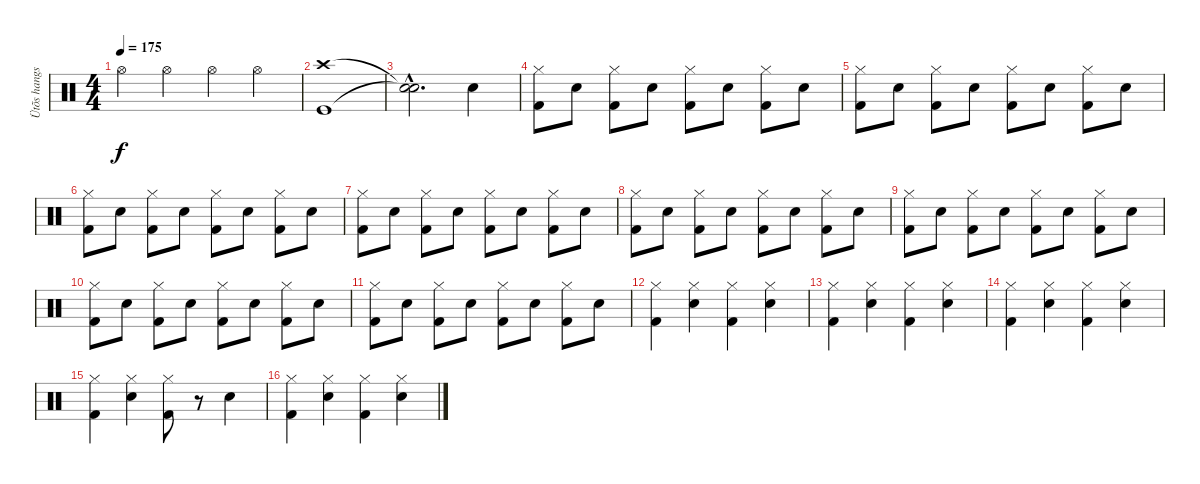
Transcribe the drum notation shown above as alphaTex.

\track ("Ütõs hangszer" "Ütõs hangs") {instrument percussion}
\staff {score}
\articulation defaults
\ts (4 4)
\tempo 175
\clef neutral
\ks c "Hi-Hat (open)".4{dy f} "Hi-Hat (open)".4 "Hi-Hat (open)".4 "Hi-Hat (open)".4
|
("Crash high (hit)" "Kick (hit)").1 |
("Snare (hit)"{hac t} "Snare (hit)"{hac t}).2{d} "Electric Snare (hit)".4 |
("Hi-Hat (closed)" "Kick (hit) 2").8 "Electric Snare (hit)".8 ("Hi-Hat (closed)" "Kick (hit) 2").8 "Electric Snare (hit)".8 ("Hi-Hat (closed)" "Kick (hit) 2").8 "Electric Snare (hit)".8 ("Hi-Hat (closed)" "Kick (hit) 2").8 "Electric Snare (hit)".8 |
("Hi-Hat (closed)" "Kick (hit) 2").8 "Electric Snare (hit)".8 ("Hi-Hat (closed)" "Kick (hit) 2").8 "Electric Snare (hit)".8 ("Hi-Hat (closed)" "Kick (hit) 2").8 "Electric Snare (hit)".8 ("Hi-Hat (closed)" "Kick (hit) 2").8 "Electric Snare (hit)".8 |
("Hi-Hat (closed)" "Kick (hit) 2").8 "Electric Snare (hit)".8 ("Hi-Hat (closed)" "Kick (hit) 2").8 "Electric Snare (hit)".8 ("Hi-Hat (closed)" "Kick (hit) 2").8 "Electric Snare (hit)".8 ("Hi-Hat (closed)" "Kick (hit) 2").8 "Electric Snare (hit)".8 |
("Hi-Hat (closed)" "Kick (hit) 2").8 "Electric Snare (hit)".8 ("Hi-Hat (closed)" "Kick (hit) 2").8 "Electric Snare (hit)".8 ("Hi-Hat (closed)" "Kick (hit) 2").8 "Electric Snare (hit)".8 ("Hi-Hat (closed)" "Kick (hit) 2").8 "Electric Snare (hit)".8 |
("Hi-Hat (closed)" "Kick (hit) 2").8 "Electric Snare (hit)".8 ("Hi-Hat (closed)" "Kick (hit) 2").8 "Electric Snare (hit)".8 ("Hi-Hat (closed)" "Kick (hit) 2").8 "Electric Snare (hit)".8 ("Hi-Hat (closed)" "Kick (hit) 2").8 "Electric Snare (hit)".8 |
("Hi-Hat (closed)" "Kick (hit) 2").8 "Electric Snare (hit)".8 ("Hi-Hat (closed)" "Kick (hit) 2").8 "Electric Snare (hit)".8 ("Hi-Hat (closed)" "Kick (hit) 2").8 "Electric Snare (hit)".8 ("Hi-Hat (closed)" "Kick (hit) 2").8 "Electric Snare (hit)".8 |
("Hi-Hat (closed)" "Kick (hit) 2").8 "Electric Snare (hit)".8 ("Hi-Hat (closed)" "Kick (hit) 2").8 "Electric Snare (hit)".8 ("Hi-Hat (closed)" "Kick (hit) 2").8 "Electric Snare (hit)".8 ("Hi-Hat (closed)" "Kick (hit) 2").8 "Electric Snare (hit)".8 |
("Hi-Hat (closed)" "Kick (hit) 2").8 "Electric Snare (hit)".8 ("Hi-Hat (closed)" "Kick (hit) 2").8 "Electric Snare (hit)".8 ("Hi-Hat (closed)" "Kick (hit) 2").8 "Electric Snare (hit)".8 ("Hi-Hat (closed)" "Kick (hit) 2").8 "Electric Snare (hit)".8 |
("Hi-Hat (closed)" "Kick (hit) 2").4 ("Hi-Hat (closed)" "Electric Snare (hit)").4 ("Hi-Hat (closed)" "Kick (hit) 2").4 ("Hi-Hat (closed)" "Electric Snare (hit)").4 |
("Hi-Hat (closed)" "Kick (hit) 2").4 ("Hi-Hat (closed)" "Electric Snare (hit)").4 ("Hi-Hat (closed)" "Kick (hit) 2").4 ("Hi-Hat (closed)" "Electric Snare (hit)").4 |
("Hi-Hat (closed)" "Kick (hit) 2").4 ("Hi-Hat (closed)" "Electric Snare (hit)").4 ("Hi-Hat (closed)" "Kick (hit) 2").4 ("Hi-Hat (closed)" "Electric Snare (hit)").4 |
("Hi-Hat (closed)" "Kick (hit) 2").4 ("Hi-Hat (closed)" "Electric Snare (hit)").4 ("Hi-Hat (closed)" "Kick (hit) 2").8 r.8 "Electric Snare (hit)".4 |
("Hi-Hat (closed)" "Kick (hit) 2").4 ("Hi-Hat (closed)" "Electric Snare (hit)").4 ("Hi-Hat (closed)" "Kick (hit) 2").4 ("Hi-Hat (closed)" "Electric Snare (hit)").4
